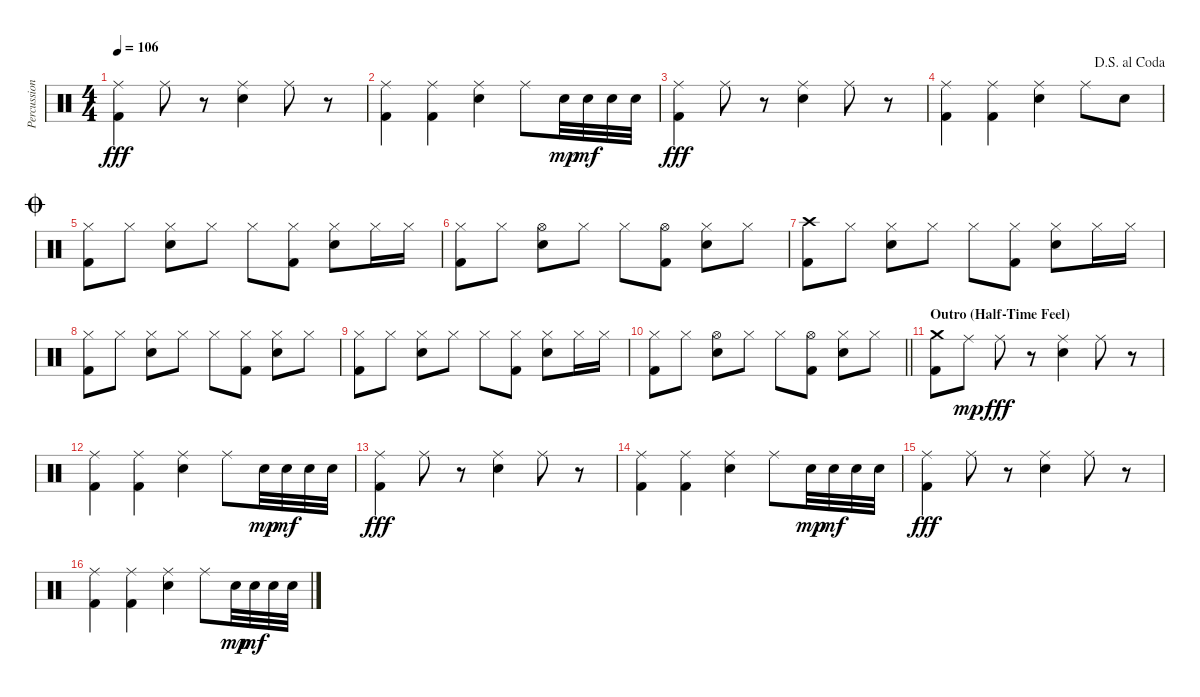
\track ("Percussion" "Percussion") {instrument percussion}
\staff {score}
\articulation defaults
\ts (4 4)
\tempo 106
\clef neutral
\ks c
("Kick (hit) 2" "Ride (middle)").4{dy fff} "Ride (middle)".8 r.8 ("Snare (hit) 2" "Ride (middle)").4 "Ride (middle)".8 r.8 |
("Kick (hit) 2" "Ride (middle)").4 ("Kick (hit) 2" "Ride (middle)").4 ("Snare (hit) 2" "Ride (middle)").4 "Ride (middle)".8 "Snare (hit) 2".32{dy mp} "Snare (hit) 2".32{dy mf} "Snare (hit) 2".32 "Snare (hit) 2".32 |
("Kick (hit) 2" "Ride (middle)").4{dy fff} "Ride (middle)".8 r.8 ("Snare (hit) 2" "Ride (middle)").4 "Ride (middle)".8 r.8 |
\jump dalsegnoalcoda
("Kick (hit) 2" "Ride (middle)").4 ("Kick (hit) 2" "Ride (middle)").4 ("Snare (hit) 2" "Ride (middle)").4 "Ride (middle)".8 "Snare (hit) 2".8 |
\jump coda
("Kick (hit) 2" "Hi-Hat (closed)").8 "Hi-Hat (closed)".8 ("Snare (hit) 2" "Hi-Hat (closed)").8 "Hi-Hat (closed)".8 "Hi-Hat (closed)".8 ("Kick (hit) 2" "Hi-Hat (closed)").8 ("Snare (hit) 2" "Hi-Hat (closed)").8 "Hi-Hat (closed)".16 "Hi-Hat (closed)".16 |
("Kick (hit) 2" "Hi-Hat (closed)").8 "Hi-Hat (closed)".8 ("Snare (hit) 2" "Hi-Hat (open)").8 "Hi-Hat (closed)".8 "Hi-Hat (closed)".8 ("Kick (hit) 2" "Hi-Hat (open)").8 ("Snare (hit) 2" "Hi-Hat (closed)").8 "Hi-Hat (closed)".8 |
("Kick (hit) 2" "Crash high (hit)").8 "Hi-Hat (closed)".8 ("Snare (hit) 2" "Hi-Hat (closed)").8 "Hi-Hat (closed)".8 "Hi-Hat (closed)".8 ("Kick (hit) 2" "Hi-Hat (closed)").8 ("Snare (hit) 2" "Hi-Hat (closed)").8 "Hi-Hat (closed)".16 "Hi-Hat (closed)".16 |
("Kick (hit) 2" "Hi-Hat (closed)").8 "Hi-Hat (closed)".8 ("Snare (hit) 2" "Hi-Hat (closed)").8 "Hi-Hat (closed)".8 "Hi-Hat (closed)".8 ("Kick (hit) 2" "Hi-Hat (closed)").8 ("Snare (hit) 2" "Hi-Hat (closed)").8 "Hi-Hat (closed)".8 |
("Kick (hit) 2" "Hi-Hat (closed)").8 "Hi-Hat (closed)".8 ("Snare (hit) 2" "Hi-Hat (closed)").8 "Hi-Hat (closed)".8 "Hi-Hat (closed)".8 ("Kick (hit) 2" "Hi-Hat (closed)").8 ("Snare (hit) 2" "Hi-Hat (closed)").8 "Hi-Hat (closed)".16 "Hi-Hat (closed)".16 |
\barLineRight lightlight
("Kick (hit) 2" "Hi-Hat (closed)").8 "Hi-Hat (closed)".8 ("Snare (hit) 2" "Hi-Hat (open)").8 "Hi-Hat (closed)".8 "Hi-Hat (closed)".8 ("Kick (hit) 2" "Hi-Hat (open)").8 ("Snare (hit) 2" "Hi-Hat (closed)").8 "Hi-Hat (closed)".8 |
\section ("" "Outro (Half-Time Feel)")
("Kick (hit) 2" "Crash medium (hit)").8 "Ride (middle)".8{dy mp} "Ride (middle)".8{dy fff} r.8 ("Snare (hit) 2" "Ride (middle)").4 "Ride (middle)".8 r.8 |
("Kick (hit) 2" "Ride (middle)").4 ("Kick (hit) 2" "Ride (middle)").4 ("Snare (hit) 2" "Ride (middle)").4 "Ride (middle)".8 "Snare (hit) 2".32{dy mp} "Snare (hit) 2".32{dy mf} "Snare (hit) 2".32 "Snare (hit) 2".32 |
("Kick (hit) 2" "Ride (middle)").4{dy fff} "Ride (middle)".8 r.8 ("Snare (hit) 2" "Ride (middle)").4 "Ride (middle)".8 r.8 |
("Kick (hit) 2" "Ride (middle)").4 ("Kick (hit) 2" "Ride (middle)").4 ("Snare (hit) 2" "Ride (middle)").4 "Ride (middle)".8 "Snare (hit) 2".32{dy mp} "Snare (hit) 2".32{dy mf} "Snare (hit) 2".32 "Snare (hit) 2".32 |
("Kick (hit) 2" "Ride (middle)").4{dy fff} "Ride (middle)".8 r.8 ("Snare (hit) 2" "Ride (middle)").4 "Ride (middle)".8 r.8 |
("Kick (hit) 2" "Ride (middle)").4 ("Kick (hit) 2" "Ride (middle)").4 ("Snare (hit) 2" "Ride (middle)").4 "Ride (middle)".8 "Snare (hit) 2".32{dy mp} "Snare (hit) 2".32{dy mf} "Snare (hit) 2".32 "Snare (hit) 2".32
